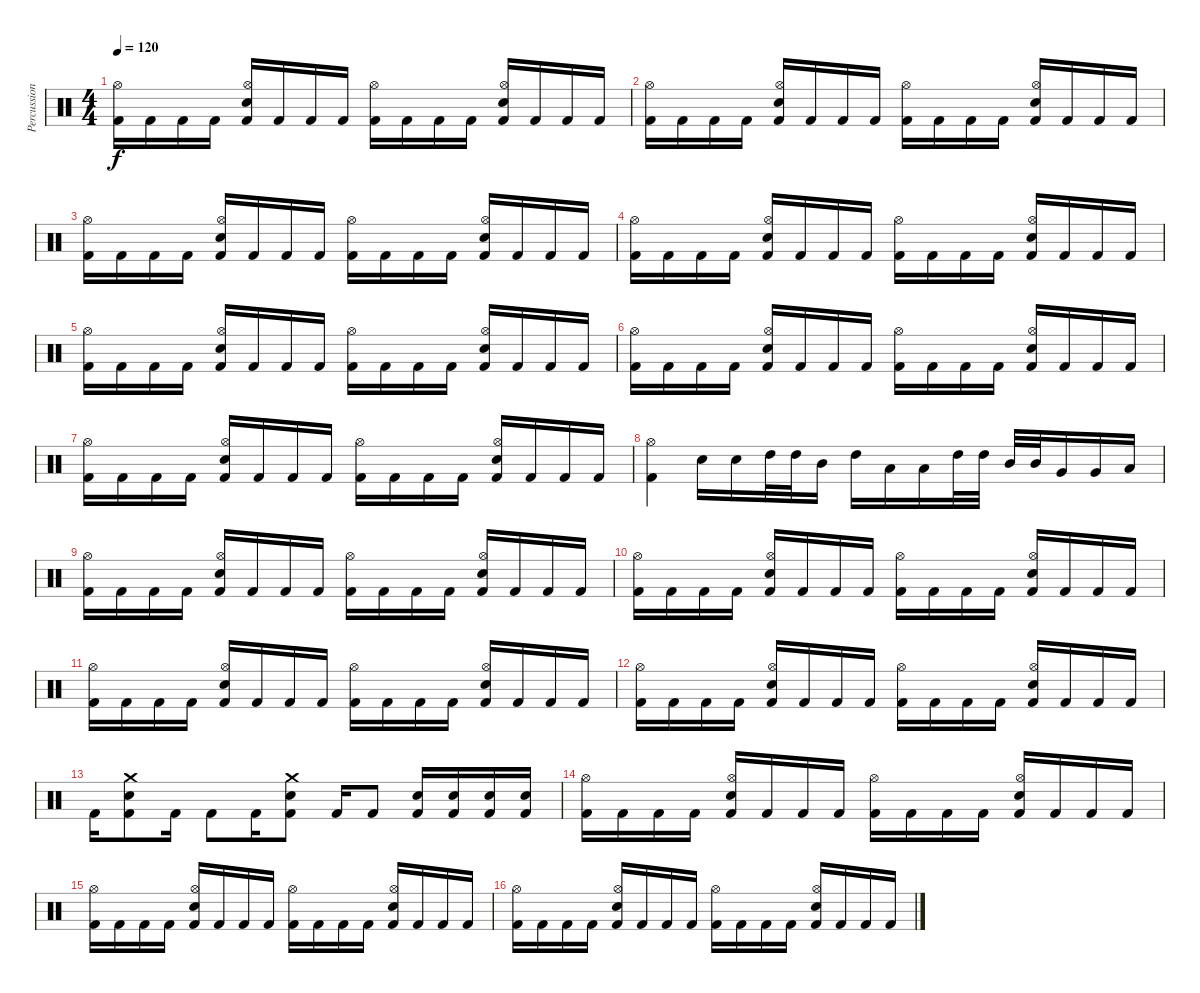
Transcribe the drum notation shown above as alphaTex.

\track ("Percussion" "Percussion") {instrument percussion}
\staff {score}
\articulation defaults
\ts (4 4)
\tempo 120
\clef neutral
\ks c
("Kick (hit) 2" "Hi-Hat (open)").16{dy f} "Kick (hit) 2".16 "Kick (hit) 2".16 "Kick (hit) 2".16 ("Kick (hit) 2" "Hi-Hat (open)" "Electric Snare (hit)").16 "Kick (hit) 2".16 "Kick (hit) 2".16 "Kick (hit) 2".16 ("Kick (hit) 2" "Hi-Hat (open)").16 "Kick (hit) 2".16 "Kick (hit) 2".16 "Kick (hit) 2".16 ("Kick (hit) 2" "Hi-Hat (open)" "Electric Snare (hit)").16 "Kick (hit) 2".16 "Kick (hit) 2".16 "Kick (hit) 2".16 |
("Kick (hit) 2" "Hi-Hat (open)").16 "Kick (hit) 2".16 "Kick (hit) 2".16 "Kick (hit) 2".16 ("Kick (hit) 2" "Hi-Hat (open)" "Electric Snare (hit)").16 "Kick (hit) 2".16 "Kick (hit) 2".16 "Kick (hit) 2".16 ("Kick (hit) 2" "Hi-Hat (open)").16 "Kick (hit) 2".16 "Kick (hit) 2".16 "Kick (hit) 2".16 ("Kick (hit) 2" "Hi-Hat (open)" "Electric Snare (hit)").16 "Kick (hit) 2".16 "Kick (hit) 2".16 "Kick (hit) 2".16 |
("Kick (hit) 2" "Hi-Hat (open)").16 "Kick (hit) 2".16 "Kick (hit) 2".16 "Kick (hit) 2".16 ("Kick (hit) 2" "Hi-Hat (open)" "Electric Snare (hit)").16 "Kick (hit) 2".16 "Kick (hit) 2".16 "Kick (hit) 2".16 ("Kick (hit) 2" "Hi-Hat (open)").16 "Kick (hit) 2".16 "Kick (hit) 2".16 "Kick (hit) 2".16 ("Kick (hit) 2" "Hi-Hat (open)" "Electric Snare (hit)").16 "Kick (hit) 2".16 "Kick (hit) 2".16 "Kick (hit) 2".16 |
("Kick (hit) 2" "Hi-Hat (open)").16 "Kick (hit) 2".16 "Kick (hit) 2".16 "Kick (hit) 2".16 ("Kick (hit) 2" "Hi-Hat (open)" "Electric Snare (hit)").16 "Kick (hit) 2".16 "Kick (hit) 2".16 "Kick (hit) 2".16 ("Kick (hit) 2" "Hi-Hat (open)").16 "Kick (hit) 2".16 "Kick (hit) 2".16 "Kick (hit) 2".16 ("Kick (hit) 2" "Hi-Hat (open)" "Electric Snare (hit)").16 "Kick (hit) 2".16 "Kick (hit) 2".16 "Kick (hit) 2".16 |
("Kick (hit) 2" "Hi-Hat (open)").16 "Kick (hit) 2".16 "Kick (hit) 2".16 "Kick (hit) 2".16 ("Kick (hit) 2" "Hi-Hat (open)" "Electric Snare (hit)").16 "Kick (hit) 2".16 "Kick (hit) 2".16 "Kick (hit) 2".16 ("Kick (hit) 2" "Hi-Hat (open)").16 "Kick (hit) 2".16 "Kick (hit) 2".16 "Kick (hit) 2".16 ("Kick (hit) 2" "Hi-Hat (open)" "Electric Snare (hit)").16 "Kick (hit) 2".16 "Kick (hit) 2".16 "Kick (hit) 2".16 |
("Kick (hit) 2" "Hi-Hat (open)").16 "Kick (hit) 2".16 "Kick (hit) 2".16 "Kick (hit) 2".16 ("Kick (hit) 2" "Hi-Hat (open)" "Electric Snare (hit)").16 "Kick (hit) 2".16 "Kick (hit) 2".16 "Kick (hit) 2".16 ("Kick (hit) 2" "Hi-Hat (open)").16 "Kick (hit) 2".16 "Kick (hit) 2".16 "Kick (hit) 2".16 ("Kick (hit) 2" "Hi-Hat (open)" "Electric Snare (hit)").16 "Kick (hit) 2".16 "Kick (hit) 2".16 "Kick (hit) 2".16 |
("Kick (hit) 2" "Hi-Hat (open)").16 "Kick (hit) 2".16 "Kick (hit) 2".16 "Kick (hit) 2".16 ("Kick (hit) 2" "Hi-Hat (open)" "Electric Snare (hit)").16 "Kick (hit) 2".16 "Kick (hit) 2".16 "Kick (hit) 2".16 ("Kick (hit) 2" "Hi-Hat (open)").16 "Kick (hit) 2".16 "Kick (hit) 2".16 "Kick (hit) 2".16 ("Kick (hit) 2" "Hi-Hat (open)" "Electric Snare (hit)").16 "Kick (hit) 2".16 "Kick (hit) 2".16 "Kick (hit) 2".16 |
("Kick (hit) 2" "Hi-Hat (open)").4 "Electric Snare (hit)".16 "Electric Snare (hit)".16 "High Tom (hit)".32 "High Tom (hit)".32 "Mid Tom (hit)".16 "High Tom (hit)".16 "Low Tom (hit)".16 "Low Tom (hit)".16 "High Tom (hit)".32 "High Tom (hit)".32 "Mid Tom (hit)".32 "Mid Tom (hit)".32 "Very Low Tom (hit)".16 "Very Low Tom (hit)".16 "Low Floor Tom (hit)".16 |
("Kick (hit) 2" "Hi-Hat (open)").16 "Kick (hit) 2".16 "Kick (hit) 2".16 "Kick (hit) 2".16 ("Kick (hit) 2" "Hi-Hat (open)" "Electric Snare (hit)").16 "Kick (hit) 2".16 "Kick (hit) 2".16 "Kick (hit) 2".16 ("Kick (hit) 2" "Hi-Hat (open)").16 "Kick (hit) 2".16 "Kick (hit) 2".16 "Kick (hit) 2".16 ("Kick (hit) 2" "Hi-Hat (open)" "Electric Snare (hit)").16 "Kick (hit) 2".16 "Kick (hit) 2".16 "Kick (hit) 2".16 |
("Kick (hit) 2" "Hi-Hat (open)").16 "Kick (hit) 2".16 "Kick (hit) 2".16 "Kick (hit) 2".16 ("Kick (hit) 2" "Hi-Hat (open)" "Electric Snare (hit)").16 "Kick (hit) 2".16 "Kick (hit) 2".16 "Kick (hit) 2".16 ("Kick (hit) 2" "Hi-Hat (open)").16 "Kick (hit) 2".16 "Kick (hit) 2".16 "Kick (hit) 2".16 ("Kick (hit) 2" "Hi-Hat (open)" "Electric Snare (hit)").16 "Kick (hit) 2".16 "Kick (hit) 2".16 "Kick (hit) 2".16 |
("Kick (hit) 2" "Hi-Hat (open)").16 "Kick (hit) 2".16 "Kick (hit) 2".16 "Kick (hit) 2".16 ("Kick (hit) 2" "Hi-Hat (open)" "Electric Snare (hit)").16 "Kick (hit) 2".16 "Kick (hit) 2".16 "Kick (hit) 2".16 ("Kick (hit) 2" "Hi-Hat (open)").16 "Kick (hit) 2".16 "Kick (hit) 2".16 "Kick (hit) 2".16 ("Kick (hit) 2" "Hi-Hat (open)" "Electric Snare (hit)").16 "Kick (hit) 2".16 "Kick (hit) 2".16 "Kick (hit) 2".16 |
("Kick (hit) 2" "Hi-Hat (open)").16 "Kick (hit) 2".16 "Kick (hit) 2".16 "Kick (hit) 2".16 ("Kick (hit) 2" "Hi-Hat (open)" "Electric Snare (hit)").16 "Kick (hit) 2".16 "Kick (hit) 2".16 "Kick (hit) 2".16 ("Kick (hit) 2" "Hi-Hat (open)").16 "Kick (hit) 2".16 "Kick (hit) 2".16 "Kick (hit) 2".16 ("Kick (hit) 2" "Hi-Hat (open)" "Electric Snare (hit)").16 "Kick (hit) 2".16 "Kick (hit) 2".16 "Kick (hit) 2".16 |
"Kick (hit) 2".16 ("Kick (hit) 2" "Electric Snare (hit)" "Crash medium (hit)").8 "Kick (hit) 2".16 "Kick (hit) 2".8 "Kick (hit) 2".16 ("Kick (hit) 2" "Electric Snare (hit)" "Crash medium (hit)").8 "Kick (hit) 2".16 "Kick (hit) 2".8 ("Kick (hit) 2" "Electric Snare (hit)").16 ("Kick (hit) 2" "Electric Snare (hit)").16 ("Kick (hit) 2" "Electric Snare (hit)").16 ("Kick (hit) 2" "Electric Snare (hit)").16 |
("Kick (hit) 2" "Hi-Hat (open)").16 "Kick (hit) 2".16 "Kick (hit) 2".16 "Kick (hit) 2".16 ("Kick (hit) 2" "Hi-Hat (open)" "Electric Snare (hit)").16 "Kick (hit) 2".16 "Kick (hit) 2".16 "Kick (hit) 2".16 ("Kick (hit) 2" "Hi-Hat (open)").16 "Kick (hit) 2".16 "Kick (hit) 2".16 "Kick (hit) 2".16 ("Kick (hit) 2" "Hi-Hat (open)" "Electric Snare (hit)").16 "Kick (hit) 2".16 "Kick (hit) 2".16 "Kick (hit) 2".16 |
("Kick (hit) 2" "Hi-Hat (open)").16 "Kick (hit) 2".16 "Kick (hit) 2".16 "Kick (hit) 2".16 ("Kick (hit) 2" "Hi-Hat (open)" "Electric Snare (hit)").16 "Kick (hit) 2".16 "Kick (hit) 2".16 "Kick (hit) 2".16 ("Kick (hit) 2" "Hi-Hat (open)").16 "Kick (hit) 2".16 "Kick (hit) 2".16 "Kick (hit) 2".16 ("Kick (hit) 2" "Hi-Hat (open)" "Electric Snare (hit)").16 "Kick (hit) 2".16 "Kick (hit) 2".16 "Kick (hit) 2".16 |
("Kick (hit) 2" "Hi-Hat (open)").16 "Kick (hit) 2".16 "Kick (hit) 2".16 "Kick (hit) 2".16 ("Kick (hit) 2" "Hi-Hat (open)" "Electric Snare (hit)").16 "Kick (hit) 2".16 "Kick (hit) 2".16 "Kick (hit) 2".16 ("Kick (hit) 2" "Hi-Hat (open)").16 "Kick (hit) 2".16 "Kick (hit) 2".16 "Kick (hit) 2".16 ("Kick (hit) 2" "Hi-Hat (open)" "Electric Snare (hit)").16 "Kick (hit) 2".16 "Kick (hit) 2".16 "Kick (hit) 2".16
